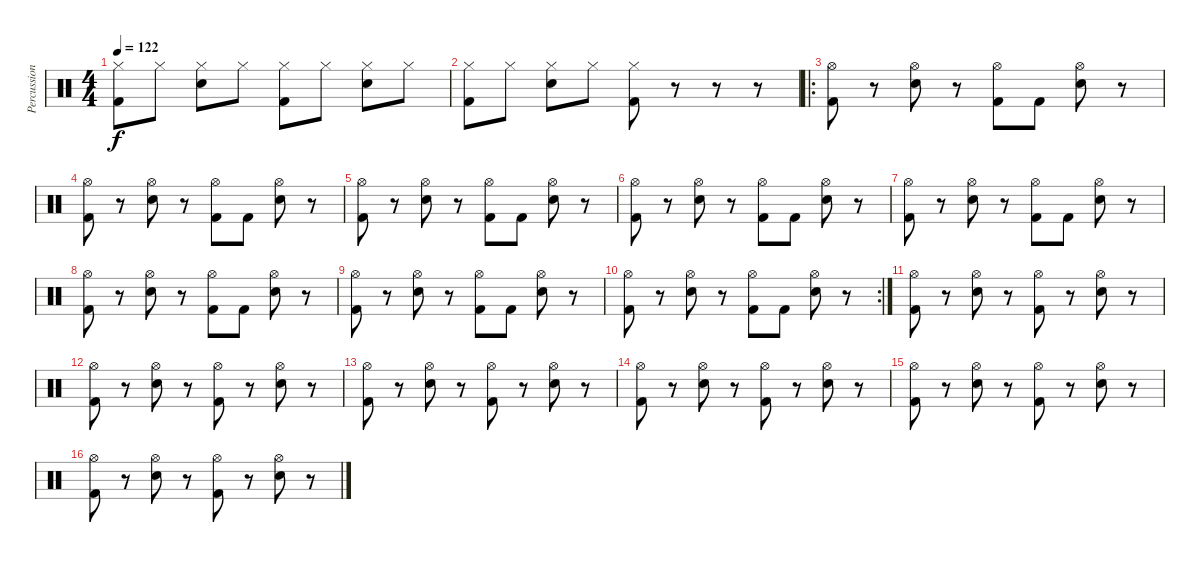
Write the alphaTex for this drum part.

\track ("Percussion" "Percussion") {instrument percussion}
\staff {score}
\articulation defaults
\ts (4 4)
\tempo 122
\clef neutral
\ks c
("Hi-Hat (closed)" "Kick (hit) 2").8{dy f} "Hi-Hat (closed)".8 ("Hi-Hat (closed)" "Electric Snare (hit)").8 "Hi-Hat (closed)".8 ("Hi-Hat (closed)" "Kick (hit) 2").8 "Hi-Hat (closed)".8 ("Hi-Hat (closed)" "Electric Snare (hit)").8 "Hi-Hat (closed)".8 |
("Hi-Hat (closed)" "Kick (hit) 2").8 "Hi-Hat (closed)".8 ("Hi-Hat (closed)" "Electric Snare (hit)").8 "Hi-Hat (closed)".8 ("Hi-Hat (closed)" "Kick (hit) 2").8 r.8 r.8 r.8 |
\ro
("Hi-Hat (open)" "Kick (hit) 2").8 r.8 ("Hi-Hat (open)" "Electric Snare (hit)").8 r.8 ("Hi-Hat (open)" "Kick (hit) 2").8 "Kick (hit) 2".8 ("Hi-Hat (open)" "Electric Snare (hit)").8 r.8 |
("Hi-Hat (open)" "Kick (hit) 2").8 r.8 ("Hi-Hat (open)" "Electric Snare (hit)").8 r.8 ("Hi-Hat (open)" "Kick (hit) 2").8 "Kick (hit) 2".8 ("Hi-Hat (open)" "Electric Snare (hit)").8 r.8 |
("Hi-Hat (open)" "Kick (hit) 2").8 r.8 ("Hi-Hat (open)" "Electric Snare (hit)").8 r.8 ("Hi-Hat (open)" "Kick (hit) 2").8 "Kick (hit) 2".8 ("Hi-Hat (open)" "Electric Snare (hit)").8 r.8 |
("Hi-Hat (open)" "Kick (hit) 2").8 r.8 ("Hi-Hat (open)" "Electric Snare (hit)").8 r.8 ("Hi-Hat (open)" "Kick (hit) 2").8 "Kick (hit) 2".8 ("Hi-Hat (open)" "Electric Snare (hit)").8 r.8 |
("Hi-Hat (open)" "Kick (hit) 2").8 r.8 ("Hi-Hat (open)" "Electric Snare (hit)").8 r.8 ("Hi-Hat (open)" "Kick (hit) 2").8 "Kick (hit) 2".8 ("Hi-Hat (open)" "Electric Snare (hit)").8 r.8 |
("Hi-Hat (open)" "Kick (hit) 2").8 r.8 ("Hi-Hat (open)" "Electric Snare (hit)").8 r.8 ("Hi-Hat (open)" "Kick (hit) 2").8 "Kick (hit) 2".8 ("Hi-Hat (open)" "Electric Snare (hit)").8 r.8 |
("Hi-Hat (open)" "Kick (hit) 2").8 r.8 ("Hi-Hat (open)" "Electric Snare (hit)").8 r.8 ("Hi-Hat (open)" "Kick (hit) 2").8 "Kick (hit) 2".8 ("Hi-Hat (open)" "Electric Snare (hit)").8 r.8 |
\rc 2
("Hi-Hat (open)" "Kick (hit) 2").8 r.8 ("Hi-Hat (open)" "Electric Snare (hit)").8 r.8 ("Hi-Hat (open)" "Kick (hit) 2").8 "Kick (hit) 2".8 ("Hi-Hat (open)" "Electric Snare (hit)").8 r.8 |
("Hi-Hat (open)" "Kick (hit) 2").8 r.8 ("Hi-Hat (open)" "Electric Snare (hit)").8 r.8 ("Hi-Hat (open)" "Kick (hit) 2").8 r.8 ("Hi-Hat (open)" "Electric Snare (hit)").8 r.8 |
("Hi-Hat (open)" "Kick (hit) 2").8 r.8 ("Hi-Hat (open)" "Electric Snare (hit)").8 r.8 ("Hi-Hat (open)" "Kick (hit) 2").8 r.8 ("Hi-Hat (open)" "Electric Snare (hit)").8 r.8 |
("Hi-Hat (open)" "Kick (hit) 2").8 r.8 ("Hi-Hat (open)" "Electric Snare (hit)").8 r.8 ("Hi-Hat (open)" "Kick (hit) 2").8 r.8 ("Hi-Hat (open)" "Electric Snare (hit)").8 r.8 |
("Hi-Hat (open)" "Kick (hit) 2").8 r.8 ("Hi-Hat (open)" "Electric Snare (hit)").8 r.8 ("Hi-Hat (open)" "Kick (hit) 2").8 r.8 ("Hi-Hat (open)" "Electric Snare (hit)").8 r.8 |
("Hi-Hat (open)" "Kick (hit) 2").8 r.8 ("Hi-Hat (open)" "Electric Snare (hit)").8 r.8 ("Hi-Hat (open)" "Kick (hit) 2").8 r.8 ("Hi-Hat (open)" "Electric Snare (hit)").8 r.8 |
("Hi-Hat (open)" "Kick (hit) 2").8 r.8 ("Hi-Hat (open)" "Electric Snare (hit)").8 r.8 ("Hi-Hat (open)" "Kick (hit) 2").8 r.8 ("Hi-Hat (open)" "Electric Snare (hit)").8 r.8
